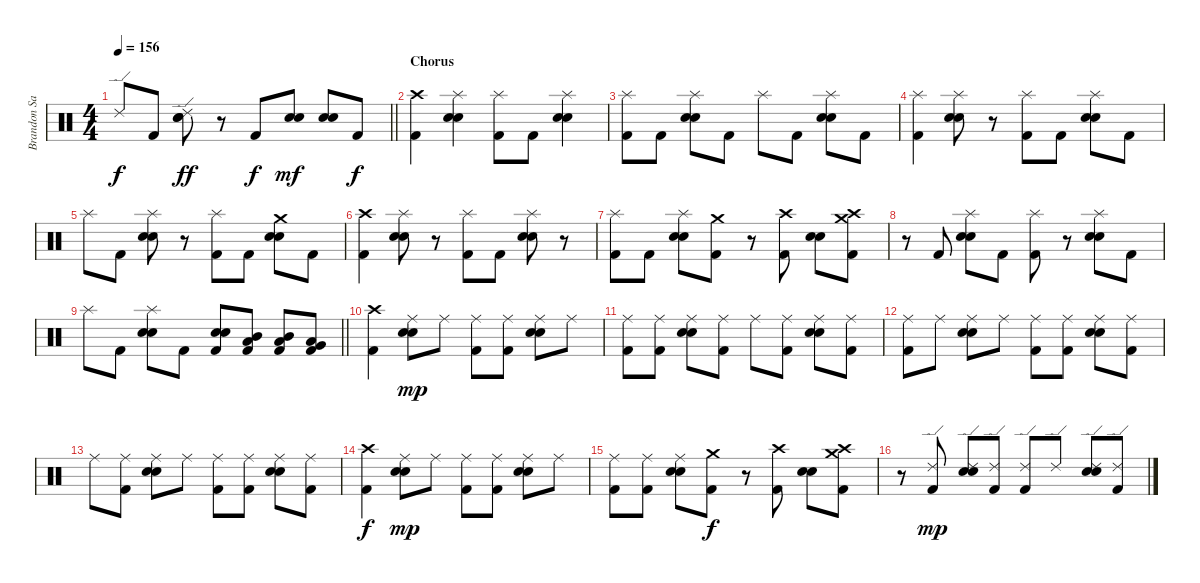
\track ("Brandon Saller" "Brandon Sa") {instrument percussion}
\staff {score}
\articulation defaults
\ts (4 4)
\tempo 156
\clef neutral
\barLineRight lightlight
\ks c "Ride (edge) 2".8{dy f} "Kick (hit) 2".8
("Ride (edge) 2" "Snare (hit) 2" "Electric Snare (hit)").8{dy ff} r.8 "Kick (hit) 2".8{dy f} ("Snare (hit) 2" "Electric Snare (hit)").8{dy mf} ("Snare (hit) 2" "Electric Snare (hit)").8 "Kick (hit) 2".8{dy f} |
\section ("" "Chorus")
("Crash high (hit)" "Kick (hit) 2").4 ("Splash (hit)" "Snare (hit) 2" "Electric Snare (hit)").4 ("Splash (hit)" "Kick (hit) 2").8 "Kick (hit) 2".8 ("Splash (hit)" "Snare (hit) 2" "Electric Snare (hit)").4 |
("Splash (hit)" "Kick (hit) 2").8 "Kick (hit) 2".8 ("Splash (hit)" "Snare (hit) 2" "Electric Snare (hit)").8 "Kick (hit) 2".8 "Splash (hit)".8 "Kick (hit) 2".8 ("Splash (hit)" "Snare (hit) 2" "Electric Snare (hit)").8 "Kick (hit) 2".8 |
("Splash (hit)" "Kick (hit) 2").4 ("Splash (hit)" "Snare (hit) 2" "Electric Snare (hit)").8 r.8 ("Splash (hit)" "Kick (hit) 2").8 "Kick (hit) 2".8 ("Splash (hit)" "Snare (hit) 2" "Electric Snare (hit)").8 "Kick (hit) 2".8 |
"Splash (hit)".8 "Kick (hit) 2".8 ("Splash (hit)" "Snare (hit) 2" "Electric Snare (hit)").8 r.8 ("Splash (hit)" "Kick (hit) 2").8 "Kick (hit) 2".8 ("Crash medium (hit)" "Snare (hit) 2" "Electric Snare (hit)").8 "Kick (hit) 2".8 |
("Crash high (hit)" "Kick (hit) 2").4 ("Splash (hit)" "Snare (hit) 2" "Electric Snare (hit)").8 r.8 ("Splash (hit)" "Kick (hit) 2").8 "Kick (hit) 2".8 ("Splash (hit)" "Snare (hit) 2" "Electric Snare (hit)").8 r.8 |
("Splash (hit)" "Kick (hit) 2").8 "Kick (hit) 2".8 ("Splash (hit)" "Snare (hit) 2" "Electric Snare (hit)").8 ("Crash medium (hit)" "Kick (hit) 2").8 r.8 ("Crash high (hit)" "Kick (hit) 2").8 ("Snare (hit) 2" "Electric Snare (hit)").8 ("Crash high (hit)" "Crash medium (hit)" "Kick (hit) 2").8 |
r.8 "Kick (hit) 2".8 ("Splash (hit)" "Snare (hit) 2" "Electric Snare (hit)").8 "Kick (hit) 2".8 ("Splash (hit)" "Kick (hit) 2").8 r.8 ("Splash (hit)" "Snare (hit) 2" "Electric Snare (hit)").8 "Kick (hit) 2".8 |
\barLineRight lightlight "Splash (hit)".8 "Kick (hit) 2".8
("Splash (hit)" "Snare (hit) 2" "Electric Snare (hit)").8 "Kick (hit) 2".8 ("Snare (hit) 2" "Electric Snare (hit)" "Kick (hit) 2").8 ("Mid Tom (hit)" "Low Tom (hit)" "Kick (hit) 2").8 ("Mid Tom (hit)" "Low Tom (hit)" "Kick (hit) 2").8 ("Very Low Tom (hit)" "Low Tom (hit)" "Kick (hit) 2").8 |
("Crash high (hit)" "Kick (hit) 2").4 ("Ride (middle)" "Snare (hit) 2" "Electric Snare (hit)").8{dy mp} "Ride (middle)".8 ("Ride (middle)" "Kick (hit) 2").8 ("Ride (middle)" "Kick (hit) 2").8 ("Ride (middle)" "Snare (hit) 2" "Electric Snare (hit)").8 "Ride (middle)".8 |
("Ride (middle)" "Kick (hit) 2").8 ("Ride (middle)" "Kick (hit) 2").8 ("Ride (middle)" "Snare (hit) 2" "Electric Snare (hit)").8 ("Ride (middle)" "Kick (hit) 2").8 "Ride (middle)".8 ("Ride (middle)" "Kick (hit) 2").8 ("Ride (middle)" "Snare (hit) 2" "Electric Snare (hit)").8 ("Ride (middle)" "Kick (hit) 2").8 |
("Ride (middle)" "Kick (hit) 2").8 "Ride (middle)".8 ("Ride (middle)" "Snare (hit) 2" "Electric Snare (hit)").8 "Ride (middle)".8 ("Ride (middle)" "Kick (hit) 2").8 ("Ride (middle)" "Kick (hit) 2").8 ("Ride (middle)" "Snare (hit) 2" "Electric Snare (hit)").8 ("Ride (middle)" "Kick (hit) 2").8 |
"Ride (middle)".8 ("Ride (middle)" "Kick (hit) 2").8 ("Ride (middle)" "Snare (hit) 2" "Electric Snare (hit)").8 "Ride (middle)".8 ("Ride (middle)" "Kick (hit) 2").8 ("Ride (middle)" "Kick (hit) 2").8 ("Ride (middle)" "Snare (hit) 2" "Electric Snare (hit)").8 ("Ride (middle)" "Kick (hit) 2").8 |
("Crash high (hit)" "Kick (hit) 2").4{dy f} ("Ride (middle)" "Snare (hit) 2" "Electric Snare (hit)").8{dy mp} "Ride (middle)".8 ("Ride (middle)" "Kick (hit) 2").8 ("Ride (middle)" "Kick (hit) 2").8 ("Ride (middle)" "Snare (hit) 2" "Electric Snare (hit)").8 "Ride (middle)".8 |
("Ride (middle)" "Kick (hit) 2").8 ("Ride (middle)" "Kick (hit) 2").8 ("Ride (middle)" "Snare (hit) 2" "Electric Snare (hit)").8 ("Crash medium (hit)" "Kick (hit) 2").8{dy f} r.8 ("Crash high (hit)" "Kick (hit) 2").8 ("Snare (hit) 2" "Electric Snare (hit)").8 ("Crash high (hit)" "Crash medium (hit)" "Kick (hit) 2").8 |
r.8 ("Ride (edge) 2" "Kick (hit) 2").8{dy mp} ("Ride (edge) 2" "Snare (hit) 2" "Electric Snare (hit)").8 ("Ride (edge) 2" "Kick (hit) 2").8 ("Ride (edge) 2" "Kick (hit) 2").8 "Ride (edge) 2".8 ("Ride (edge) 2" "Snare (hit) 2" "Electric Snare (hit)").8 ("Ride (edge) 2" "Kick (hit) 2").8
